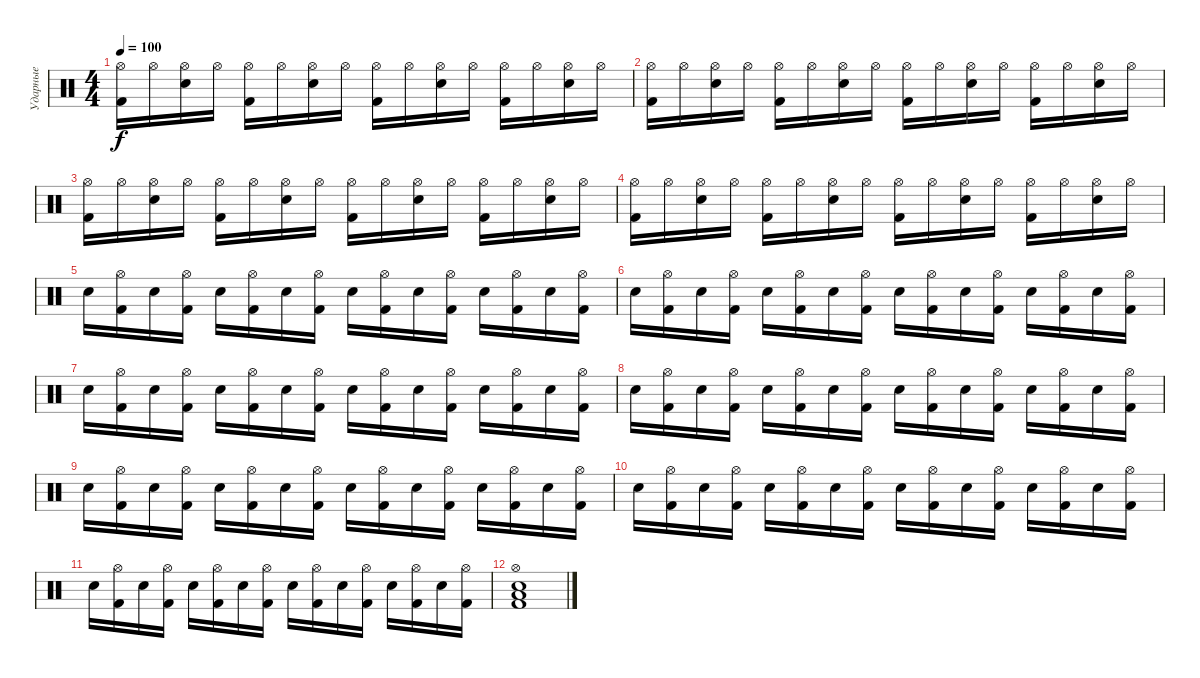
\track ("Ударные" "Ударные") {instrument percussion}
\staff {score}
\articulation defaults
\ts (4 4)
\tempo 100
\clef neutral
\ks c
("Hi-Hat (open)" "Kick (hit) 2").16{dy f} "Hi-Hat (open)".16 ("Hi-Hat (open)" "Snare (hit) 2").16 "Hi-Hat (open)".16 ("Hi-Hat (open)" "Kick (hit) 2").16 "Hi-Hat (open)".16 ("Hi-Hat (open)" "Snare (hit) 2").16 "Hi-Hat (open)".16 ("Hi-Hat (open)" "Kick (hit) 2").16 "Hi-Hat (open)".16 ("Hi-Hat (open)" "Snare (hit) 2").16 "Hi-Hat (open)".16 ("Hi-Hat (open)" "Kick (hit) 2").16 "Hi-Hat (open)".16 ("Hi-Hat (open)" "Snare (hit) 2").16 "Hi-Hat (open)".16 |
("Hi-Hat (open)" "Kick (hit) 2").16 "Hi-Hat (open)".16 ("Hi-Hat (open)" "Snare (hit) 2").16 "Hi-Hat (open)".16 ("Hi-Hat (open)" "Kick (hit) 2").16 "Hi-Hat (open)".16 ("Hi-Hat (open)" "Snare (hit) 2").16 "Hi-Hat (open)".16 ("Hi-Hat (open)" "Kick (hit) 2").16 "Hi-Hat (open)".16 ("Hi-Hat (open)" "Snare (hit) 2").16 "Hi-Hat (open)".16 ("Hi-Hat (open)" "Kick (hit) 2").16 "Hi-Hat (open)".16 ("Hi-Hat (open)" "Snare (hit) 2").16 "Hi-Hat (open)".16 |
("Hi-Hat (open)" "Kick (hit) 2").16 "Hi-Hat (open)".16 ("Hi-Hat (open)" "Snare (hit) 2").16 "Hi-Hat (open)".16 ("Hi-Hat (open)" "Kick (hit) 2").16 "Hi-Hat (open)".16 ("Hi-Hat (open)" "Snare (hit) 2").16 "Hi-Hat (open)".16 ("Hi-Hat (open)" "Kick (hit) 2").16 "Hi-Hat (open)".16 ("Hi-Hat (open)" "Snare (hit) 2").16 "Hi-Hat (open)".16 ("Hi-Hat (open)" "Kick (hit) 2").16 "Hi-Hat (open)".16 ("Hi-Hat (open)" "Snare (hit) 2").16 "Hi-Hat (open)".16 |
("Hi-Hat (open)" "Kick (hit) 2").16 "Hi-Hat (open)".16 ("Hi-Hat (open)" "Snare (hit) 2").16 "Hi-Hat (open)".16 ("Hi-Hat (open)" "Kick (hit) 2").16 "Hi-Hat (open)".16 ("Hi-Hat (open)" "Snare (hit) 2").16 "Hi-Hat (open)".16 ("Hi-Hat (open)" "Kick (hit) 2").16 "Hi-Hat (open)".16 ("Hi-Hat (open)" "Snare (hit) 2").16 "Hi-Hat (open)".16 ("Hi-Hat (open)" "Kick (hit) 2").16 "Hi-Hat (open)".16 ("Hi-Hat (open)" "Snare (hit) 2").16 "Hi-Hat (open)".16 |
"Snare (hit) 2".16 ("Hi-Hat (open)" "Kick (hit) 2").16 "Snare (hit) 2".16 ("Hi-Hat (open)" "Kick (hit) 2").16 "Snare (hit) 2".16 ("Hi-Hat (open)" "Kick (hit) 2").16 "Snare (hit) 2".16 ("Hi-Hat (open)" "Kick (hit) 2").16 "Snare (hit) 2".16 ("Hi-Hat (open)" "Kick (hit) 2").16 "Snare (hit) 2".16 ("Hi-Hat (open)" "Kick (hit) 2").16 "Snare (hit) 2".16 ("Hi-Hat (open)" "Kick (hit) 2").16 "Snare (hit) 2".16 ("Hi-Hat (open)" "Kick (hit) 2").16 |
"Snare (hit) 2".16 ("Hi-Hat (open)" "Kick (hit) 2").16 "Snare (hit) 2".16 ("Hi-Hat (open)" "Kick (hit) 2").16 "Snare (hit) 2".16 ("Hi-Hat (open)" "Kick (hit) 2").16 "Snare (hit) 2".16 ("Hi-Hat (open)" "Kick (hit) 2").16 "Snare (hit) 2".16 ("Hi-Hat (open)" "Kick (hit) 2").16 "Snare (hit) 2".16 ("Hi-Hat (open)" "Kick (hit) 2").16 "Snare (hit) 2".16 ("Hi-Hat (open)" "Kick (hit) 2").16 "Snare (hit) 2".16 ("Hi-Hat (open)" "Kick (hit) 2").16 |
"Snare (hit) 2".16 ("Hi-Hat (open)" "Kick (hit) 2").16 "Snare (hit) 2".16 ("Hi-Hat (open)" "Kick (hit) 2").16 "Snare (hit) 2".16 ("Hi-Hat (open)" "Kick (hit) 2").16 "Snare (hit) 2".16 ("Hi-Hat (open)" "Kick (hit) 2").16 "Snare (hit) 2".16 ("Hi-Hat (open)" "Kick (hit) 2").16 "Snare (hit) 2".16 ("Hi-Hat (open)" "Kick (hit) 2").16 "Snare (hit) 2".16 ("Hi-Hat (open)" "Kick (hit) 2").16 "Snare (hit) 2".16 ("Hi-Hat (open)" "Kick (hit) 2").16 |
"Snare (hit) 2".16 ("Hi-Hat (open)" "Kick (hit) 2").16 "Snare (hit) 2".16 ("Hi-Hat (open)" "Kick (hit) 2").16 "Snare (hit) 2".16 ("Hi-Hat (open)" "Kick (hit) 2").16 "Snare (hit) 2".16 ("Hi-Hat (open)" "Kick (hit) 2").16 "Snare (hit) 2".16 ("Hi-Hat (open)" "Kick (hit) 2").16 "Snare (hit) 2".16 ("Hi-Hat (open)" "Kick (hit) 2").16 "Snare (hit) 2".16 ("Hi-Hat (open)" "Kick (hit) 2").16 "Snare (hit) 2".16 ("Hi-Hat (open)" "Kick (hit) 2").16 |
"Snare (hit) 2".16 ("Hi-Hat (open)" "Kick (hit) 2").16 "Snare (hit) 2".16 ("Hi-Hat (open)" "Kick (hit) 2").16 "Snare (hit) 2".16 ("Hi-Hat (open)" "Kick (hit) 2").16 "Snare (hit) 2".16 ("Hi-Hat (open)" "Kick (hit) 2").16 "Snare (hit) 2".16 ("Hi-Hat (open)" "Kick (hit) 2").16 "Snare (hit) 2".16 ("Hi-Hat (open)" "Kick (hit) 2").16 "Snare (hit) 2".16 ("Hi-Hat (open)" "Kick (hit) 2").16 "Snare (hit) 2".16 ("Hi-Hat (open)" "Kick (hit) 2").16 |
"Snare (hit) 2".16 ("Hi-Hat (open)" "Kick (hit) 2").16 "Snare (hit) 2".16 ("Hi-Hat (open)" "Kick (hit) 2").16 "Snare (hit) 2".16 ("Hi-Hat (open)" "Kick (hit) 2").16 "Snare (hit) 2".16 ("Hi-Hat (open)" "Kick (hit) 2").16 "Snare (hit) 2".16 ("Hi-Hat (open)" "Kick (hit) 2").16 "Snare (hit) 2".16 ("Hi-Hat (open)" "Kick (hit) 2").16 "Snare (hit) 2".16 ("Hi-Hat (open)" "Kick (hit) 2").16 "Snare (hit) 2".16 ("Hi-Hat (open)" "Kick (hit) 2").16 |
"Snare (hit) 2".16 ("Hi-Hat (open)" "Kick (hit) 2").16 "Snare (hit) 2".16 ("Hi-Hat (open)" "Kick (hit) 2").16 "Snare (hit) 2".16 ("Hi-Hat (open)" "Kick (hit) 2").16 "Snare (hit) 2".16 ("Hi-Hat (open)" "Kick (hit) 2").16 "Snare (hit) 2".16 ("Hi-Hat (open)" "Kick (hit) 2").16 "Snare (hit) 2".16 ("Hi-Hat (open)" "Kick (hit) 2").16 "Snare (hit) 2".16 ("Hi-Hat (open)" "Kick (hit) 2").16 "Snare (hit) 2".16 ("Hi-Hat (open)" "Kick (hit) 2").16 |
("Hi-Hat (open)" "Snare (hit) 2" "Low Floor Tom (hit)" "Kick (hit) 2").1
